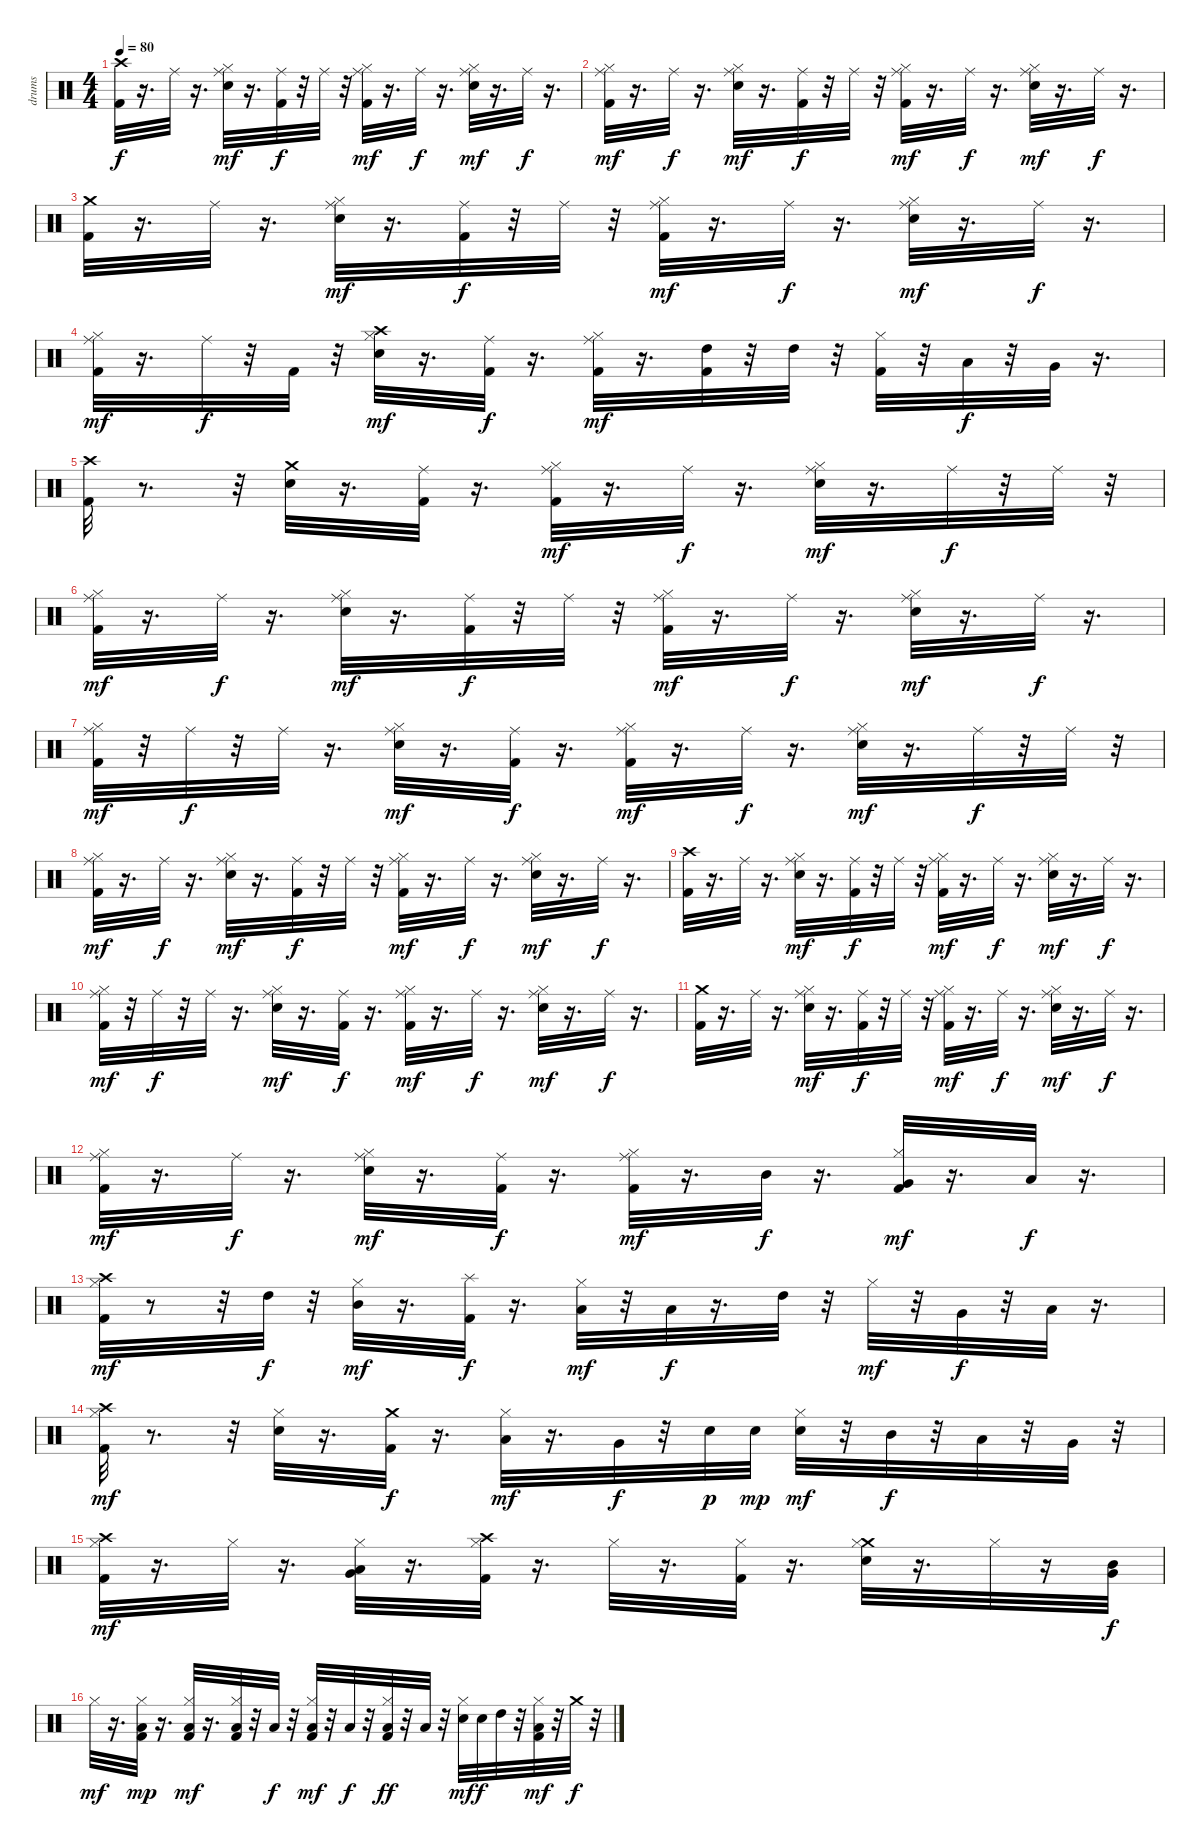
\track ("drums" "drums") {instrument percussion}
\staff {score}
\articulation defaults
\ts (4 4)
\tempo 80
\clef neutral
\ks c
("Crash high (hit)" "Kick (hit) 2").32{dy f} r.16{d} "Ride (middle)".32 r.16{d} ("Ride (middle)" "Hi-Hat (closed)" "Electric Snare (hit)").32{dy mf} r.16{d} ("Ride (middle)" "Kick (hit) 2").32{dy f} r.32 "Ride (middle)".32 r.32 ("Ride (middle)" "Hi-Hat (closed)" "Kick (hit) 2").32{dy mf} r.16{d} "Ride (middle)".32{dy f} r.16{d} ("Ride (middle)" "Hi-Hat (closed)" "Electric Snare (hit)").32{dy mf} r.16{d} "Ride (middle)".32{dy f} r.16{d} |
("Ride (middle)" "Hi-Hat (closed)" "Kick (hit) 2").32{dy mf} r.16{d} "Ride (middle)".32{dy f} r.16{d} ("Ride (middle)" "Hi-Hat (closed)" "Electric Snare (hit)").32{dy mf} r.16{d} ("Ride (middle)" "Kick (hit) 2").32{dy f} r.32 "Ride (middle)".32 r.32 ("Ride (middle)" "Hi-Hat (closed)" "Kick (hit) 2").32{dy mf} r.16{d} "Ride (middle)".32{dy f} r.16{d} ("Ride (middle)" "Hi-Hat (closed)" "Electric Snare (hit)").32{dy mf} r.16{d} "Ride (middle)".32{dy f} r.16{d} |
("Crash medium (hit)" "Kick (hit) 2").32 r.16{d} "Ride (middle)".32 r.16{d} ("Ride (middle)" "Hi-Hat (closed)" "Electric Snare (hit)").32{dy mf} r.16{d} ("Ride (middle)" "Kick (hit) 2").32{dy f} r.32 "Ride (middle)".32 r.32 ("Hi-Hat (closed)" "Ride (middle)" "Kick (hit) 2").32{dy mf} r.16{d} "Ride (middle)".32{dy f} r.16{d} ("Ride (middle)" "Electric Snare (hit)" "Hi-Hat (closed)").32{dy mf} r.16{d} "Ride (middle)".32{dy f} r.16{d} |
("Ride (middle)" "Hi-Hat (closed)" "Kick (hit) 2").32{dy mf} r.16{d} "Ride (middle)".32{dy f} r.32 "Kick (hit) 2".32 r.32 ("Hi-Hat (closed)" "Electric Snare (hit)" "Crash high (hit)").32{dy mf} r.16{d} ("Ride (middle)" "Kick (hit) 2").32{dy f} r.16{d} ("Ride (middle)" "Hi-Hat (closed)" "Kick (hit) 2").32{dy mf} r.16{d} ("Kick (hit) 2" "High Tom (hit)").32 r.32 "High Tom (hit)".32 r.32 ("Kick (hit) 2" "Hi-Hat (closed)").32 r.32 "Low Tom (hit)".32{dy f} r.32 "Very Low Tom (hit)".32 r.16{d} |
("Crash high (hit)" "Kick (hit) 2").32 r.8{d} r.32 ("Crash medium (hit)" "Electric Snare (hit)").32 r.16{d} ("Ride (middle)" "Kick (hit) 2").32 r.16{d} ("Ride (middle)" "Kick (hit) 2" "Hi-Hat (closed)").32{dy mf} r.16{d} "Ride (middle)".32{dy f} r.16{d} ("Electric Snare (hit)" "Ride (middle)" "Hi-Hat (closed)").32{dy mf} r.16{d} "Ride (middle)".32{dy f} r.32 "Ride (middle)".32 r.32 |
("Kick (hit) 2" "Ride (middle)" "Hi-Hat (closed)").32{dy mf} r.16{d} "Ride (middle)".32{dy f} r.16{d} ("Hi-Hat (closed)" "Electric Snare (hit)" "Ride (middle)").32{dy mf} r.16{d} ("Kick (hit) 2" "Ride (middle)").32{dy f} r.32 "Ride (middle)".32 r.32 ("Hi-Hat (closed)" "Ride (middle)" "Kick (hit) 2").32{dy mf} r.16{d} "Ride (middle)".32{dy f} r.16{d} ("Hi-Hat (closed)" "Ride (middle)" "Electric Snare (hit)").32{dy mf} r.16{d} "Ride (middle)".32{dy f} r.16{d} |
("Kick (hit) 2" "Ride (middle)" "Hi-Hat (closed)").32{dy mf} r.32 "Ride (middle)".32{dy f} r.32 "Ride (middle)".32 r.16{d} ("Hi-Hat (closed)" "Electric Snare (hit)" "Ride (middle)").32{dy mf} r.16{d} ("Ride (middle)" "Kick (hit) 2").32{dy f} r.16{d} ("Kick (hit) 2" "Hi-Hat (closed)" "Ride (middle)").32{dy mf} r.16{d} "Ride (middle)".32{dy f} r.16{d} ("Hi-Hat (closed)" "Electric Snare (hit)" "Ride (middle)").32{dy mf} r.16{d} "Ride (middle)".32{dy f} r.32 "Ride (middle)".32 r.32 |
("Ride (middle)" "Kick (hit) 2" "Hi-Hat (closed)").32{dy mf} r.16{d} "Ride (middle)".32{dy f} r.16{d} ("Electric Snare (hit)" "Hi-Hat (closed)" "Ride (middle)").32{dy mf} r.16{d} ("Ride (middle)" "Kick (hit) 2").32{dy f} r.32 "Ride (middle)".32 r.32 ("Ride (middle)" "Hi-Hat (closed)" "Kick (hit) 2").32{dy mf} r.16{d} "Ride (middle)".32{dy f} r.16{d} ("Hi-Hat (closed)" "Electric Snare (hit)" "Ride (middle)").32{dy mf} r.16{d} "Ride (middle)".32{dy f} r.16{d} |
("Crash high (hit)" "Kick (hit) 2").32 r.16{d} "Ride (middle)".32 r.16{d} ("Ride (middle)" "Electric Snare (hit)" "Hi-Hat (closed)").32{dy mf} r.16{d} ("Kick (hit) 2" "Ride (middle)").32{dy f} r.32 "Ride (middle)".32 r.32 ("Kick (hit) 2" "Ride (middle)" "Hi-Hat (closed)").32{dy mf} r.16{d} "Ride (middle)".32{dy f} r.16{d} ("Hi-Hat (closed)" "Ride (middle)" "Electric Snare (hit)").32{dy mf} r.16{d} "Ride (middle)".32{dy f} r.16{d} |
("Hi-Hat (closed)" "Ride (middle)" "Kick (hit) 2").32{dy mf} r.32 "Ride (middle)".32{dy f} r.32 "Ride (middle)".32 r.16{d} ("Electric Snare (hit)" "Ride (middle)" "Hi-Hat (closed)").32{dy mf} r.16{d} ("Ride (middle)" "Kick (hit) 2").32{dy f} r.16{d} ("Hi-Hat (closed)" "Ride (middle)" "Kick (hit) 2").32{dy mf} r.16{d} "Ride (middle)".32{dy f} r.16{d} ("Ride (middle)" "Electric Snare (hit)" "Hi-Hat (closed)").32{dy mf} r.16{d} "Ride (middle)".32{dy f} r.16{d} |
("Crash medium (hit)" "Kick (hit) 2").32 r.16{d} "Ride (middle)".32 r.16{d} ("Ride (middle)" "Electric Snare (hit)" "Hi-Hat (closed)").32{dy mf} r.16{d} ("Kick (hit) 2" "Ride (middle)").32{dy f} r.32 "Ride (middle)".32 r.32 ("Kick (hit) 2" "Ride (middle)" "Hi-Hat (closed)").32{dy mf} r.16{d} "Ride (middle)".32{dy f} r.16{d} ("Electric Snare (hit)" "Ride (middle)" "Hi-Hat (closed)").32{dy mf} r.16{d} "Ride (middle)".32{dy f} r.16{d} |
("Ride (middle)" "Hi-Hat (closed)" "Kick (hit) 2").32{dy mf} r.16{d} "Ride (middle)".32{dy f} r.16{d} ("Electric Snare (hit)" "Ride (middle)" "Hi-Hat (closed)").32{dy mf} r.16{d} ("Kick (hit) 2" "Ride (middle)").32{dy f} r.16{d} ("Hi-Hat (closed)" "Ride (middle)" "Kick (hit) 2").32{dy mf} r.16{d} "Mid Tom (hit)".32{dy f} r.16{d} ("Kick (hit) 2" "Hi-Hat (closed)" "Very Low Tom (hit)").32{dy mf} r.16{d} "Low Floor Tom (hit)".32{dy f} r.16{d} |
("Kick (hit) 2" "Crash high (hit)" "Hi-Hat (closed)").32{dy mf} r.8 r.32 "High Tom (hit)".32{dy f} r.32 ("Hi-Hat (closed)" "Mid Tom (hit)").32{dy mf} r.16{d} ("Splash (hit)" "Kick (hit) 2").32{dy f} r.16{d} ("Low Tom (hit)" "Hi-Hat (closed)").32{dy mf} r.32 "Low Tom (hit)".32{dy f} r.16{d} "High Tom (hit)".32 r.32 "Hi-Hat (closed)".32{dy mf} r.32 "Very Low Tom (hit)".32{dy f} r.32 "Low Floor Tom (hit)".32 r.16{d} |
("Kick (hit) 2" "Crash high (hit)" "Hi-Hat (closed)").32{dy mf} r.8{d} r.32 ("Electric Snare (hit)" "Hi-Hat (closed)").32 r.16{d} ("Crash medium (hit)" "Kick (hit) 2").32{dy f} r.16{d} ("Hi-Hat (closed)" "Low Tom (hit)").32{dy mf} r.16{d} "Very Low Tom (hit)".32{dy f} r.32 "Electric Snare (hit)".32{dy p} "Electric Snare (hit)".32{dy mp} ("Hi-Hat (closed)" "Electric Snare (hit)").32{dy mf} r.32 "Mid Tom (hit)".32{dy f} r.32 "Low Tom (hit)".32 r.32 "Very Low Tom (hit)".32 r.32 |
("Crash high (hit)" "Kick (hit) 2" "Hi-Hat (closed)").32{dy mf} r.16{d} "Hi-Hat (closed)".32 r.16{d} ("Very Low Tom (hit)" "Low Tom (hit)" "Hi-Hat (closed)").32 r.16{d} ("Kick (hit) 2" "Crash high (hit)" "Hi-Hat (closed)").32 r.16{d} "Hi-Hat (closed)".32 r.16{d} ("Kick (hit) 2" "Hi-Hat (closed)").32 r.16{d} ("Electric Snare (hit)" "Crash medium (hit)" "Hi-Hat (closed)").32 r.16{d} "Hi-Hat (closed)".32 r.16 ("Mid Tom (hit)" "Very Low Tom (hit)").32{dy f} |
"Hi-Hat (closed)".32{dy mf} r.16{d} ("Kick (hit) 2" "Hi-Hat (closed)" "Low Floor Tom (hit)").32{dy mp} r.16{d} ("Low Floor Tom (hit)" "Kick (hit) 2" "Hi-Hat (closed)").32{dy mf} r.16{d} ("Kick (hit) 2" "Hi-Hat (closed)" "Low Floor Tom (hit)").32 r.32 "Low Floor Tom (hit)".32{dy f} r.32 ("Kick (hit) 2" "Low Floor Tom (hit)" "Hi-Hat (closed)").32{dy mf} r.32 "Low Floor Tom (hit)".32{dy f} r.32 ("Kick (hit) 2" "Hi-Hat (closed)" "Low Floor Tom (hit)").32{dy ff} r.32 "Low Floor Tom (hit)".32 r.32 ("Hi-Hat (closed)" "Electric Snare (hit)").32{dy mf} "Electric Snare (hit)".32{dy f} "High Tom (hit)".32 r.32 ("Hi-Hat (closed)" "Kick (hit) 2" "Low Tom (hit)").32{dy mf} r.32 "Crash medium (hit)".32{dy f} r.32
